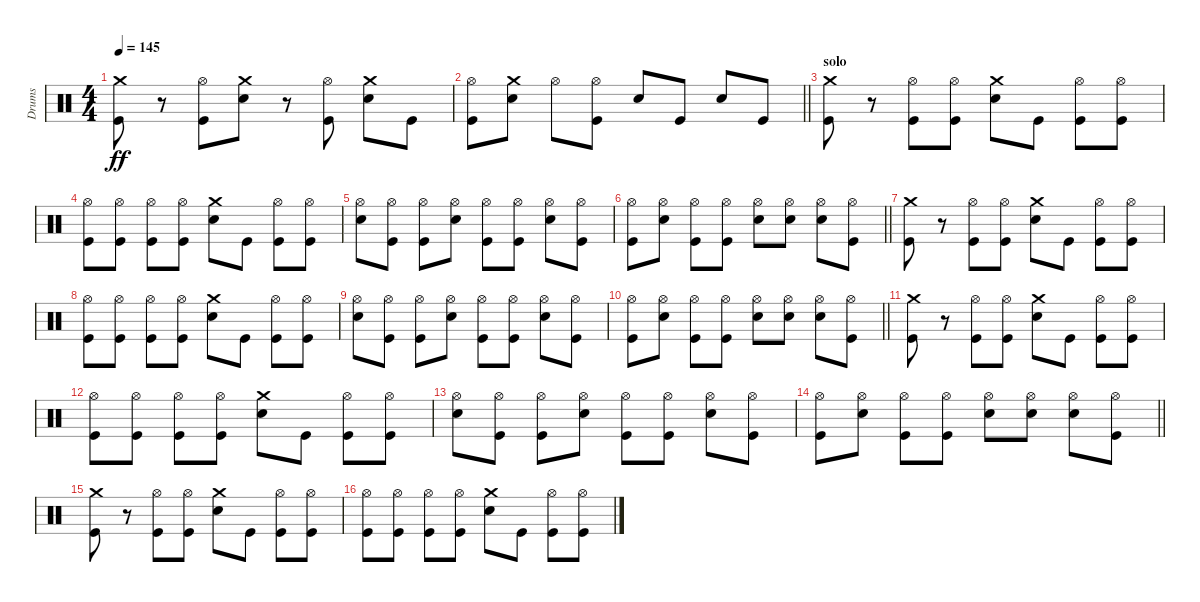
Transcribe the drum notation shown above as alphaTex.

\track ("Drums" "Drums") {instrument percussion}
\staff {score}
\articulation defaults
\ts (4 4)
\tempo 145
\clef neutral
\ks c
("Crash medium (hit)" "Kick (hit)").8{dy ff} r.8 ("Hi-Hat (open)" "Kick (hit)").8 ("Crash medium (hit)" "Snare (hit) 2").8 r.8 ("Hi-Hat (open)" "Kick (hit)").8 ("Crash medium (hit)" "Snare (hit) 2").8 "Kick (hit)".8 |
\barLineRight lightlight
("Kick (hit)" "Hi-Hat (open)").8 ("Crash medium (hit)" "Snare (hit) 2").8 "Hi-Hat (open)".8 ("Hi-Hat (open)" "Kick (hit)").8 "Snare (hit) 2".8 "Kick (hit)".8 "Snare (hit) 2".8 "Kick (hit)".8 |
\section ("" "solo")
("Kick (hit)" "Crash medium (hit)").8 r.8 ("Hi-Hat (open)" "Kick (hit)").8 ("Hi-Hat (open)" "Kick (hit)").8 ("Snare (hit) 2" "Crash medium (hit)").8 "Kick (hit)".8 ("Hi-Hat (open)" "Kick (hit)").8 ("Hi-Hat (open)" "Kick (hit)").8 |
("Hi-Hat (open)" "Kick (hit)").8 ("Hi-Hat (open)" "Kick (hit)").8 ("Kick (hit)" "Hi-Hat (open)").8 ("Hi-Hat (open)" "Kick (hit)").8 ("Snare (hit) 2" "Crash medium (hit)").8 "Kick (hit)".8 ("Hi-Hat (open)" "Kick (hit)").8 ("Hi-Hat (open)" "Kick (hit)").8 |
("Hi-Hat (open)" "Snare (hit) 2").8 ("Hi-Hat (open)" "Kick (hit)").8 ("Hi-Hat (open)" "Kick (hit)").8 ("Snare (hit) 2" "Hi-Hat (open)").8 ("Hi-Hat (open)" "Kick (hit)").8 ("Hi-Hat (open)" "Kick (hit)").8 ("Snare (hit) 2" "Hi-Hat (open)").8 ("Hi-Hat (open)" "Kick (hit)").8 |
\barLineRight lightlight
("Hi-Hat (open)" "Kick (hit)").8 ("Snare (hit) 2" "Hi-Hat (open)").8 ("Hi-Hat (open)" "Kick (hit)").8 ("Hi-Hat (open)" "Kick (hit)").8 ("Hi-Hat (open)" "Snare (hit) 2").8 ("Hi-Hat (open)" "Snare (hit) 2").8 ("Hi-Hat (open)" "Snare (hit) 2").8 ("Hi-Hat (open)" "Kick (hit)").8 |
("Kick (hit)" "Crash medium (hit)").8 r.8 ("Hi-Hat (open)" "Kick (hit)").8 ("Hi-Hat (open)" "Kick (hit)").8 ("Snare (hit) 2" "Crash medium (hit)").8 "Kick (hit)".8 ("Hi-Hat (open)" "Kick (hit)").8 ("Hi-Hat (open)" "Kick (hit)").8 |
("Hi-Hat (open)" "Kick (hit)").8 ("Hi-Hat (open)" "Kick (hit)").8 ("Kick (hit)" "Hi-Hat (open)").8 ("Hi-Hat (open)" "Kick (hit)").8 ("Snare (hit) 2" "Crash medium (hit)").8 "Kick (hit)".8 ("Hi-Hat (open)" "Kick (hit)").8 ("Hi-Hat (open)" "Kick (hit)").8 |
("Hi-Hat (open)" "Snare (hit) 2").8 ("Hi-Hat (open)" "Kick (hit)").8 ("Hi-Hat (open)" "Kick (hit)").8 ("Snare (hit) 2" "Hi-Hat (open)").8 ("Hi-Hat (open)" "Kick (hit)").8 ("Hi-Hat (open)" "Kick (hit)").8 ("Snare (hit) 2" "Hi-Hat (open)").8 ("Hi-Hat (open)" "Kick (hit)").8 |
\barLineRight lightlight
("Hi-Hat (open)" "Kick (hit)").8 ("Snare (hit) 2" "Hi-Hat (open)").8 ("Hi-Hat (open)" "Kick (hit)").8 ("Hi-Hat (open)" "Kick (hit)").8 ("Hi-Hat (open)" "Snare (hit) 2").8 ("Hi-Hat (open)" "Snare (hit) 2").8 ("Hi-Hat (open)" "Snare (hit) 2").8 ("Hi-Hat (open)" "Kick (hit)").8 |
("Kick (hit)" "Crash medium (hit)").8 r.8 ("Hi-Hat (open)" "Kick (hit)").8 ("Hi-Hat (open)" "Kick (hit)").8 ("Snare (hit) 2" "Crash medium (hit)").8 "Kick (hit)".8 ("Hi-Hat (open)" "Kick (hit)").8 ("Hi-Hat (open)" "Kick (hit)").8 |
("Hi-Hat (open)" "Kick (hit)").8 ("Hi-Hat (open)" "Kick (hit)").8 ("Kick (hit)" "Hi-Hat (open)").8 ("Hi-Hat (open)" "Kick (hit)").8 ("Snare (hit) 2" "Crash medium (hit)").8 "Kick (hit)".8 ("Hi-Hat (open)" "Kick (hit)").8 ("Hi-Hat (open)" "Kick (hit)").8 |
("Hi-Hat (open)" "Snare (hit) 2").8 ("Hi-Hat (open)" "Kick (hit)").8 ("Hi-Hat (open)" "Kick (hit)").8 ("Snare (hit) 2" "Hi-Hat (open)").8 ("Hi-Hat (open)" "Kick (hit)").8 ("Hi-Hat (open)" "Kick (hit)").8 ("Snare (hit) 2" "Hi-Hat (open)").8 ("Hi-Hat (open)" "Kick (hit)").8 |
\barLineRight lightlight
("Hi-Hat (open)" "Kick (hit)").8 ("Snare (hit) 2" "Hi-Hat (open)").8 ("Hi-Hat (open)" "Kick (hit)").8 ("Hi-Hat (open)" "Kick (hit)").8 ("Hi-Hat (open)" "Snare (hit) 2").8 ("Hi-Hat (open)" "Snare (hit) 2").8 ("Hi-Hat (open)" "Snare (hit) 2").8 ("Hi-Hat (open)" "Kick (hit)").8 |
("Kick (hit)" "Crash medium (hit)").8 r.8 ("Hi-Hat (open)" "Kick (hit)").8 ("Hi-Hat (open)" "Kick (hit)").8 ("Snare (hit) 2" "Crash medium (hit)").8 "Kick (hit)".8 ("Hi-Hat (open)" "Kick (hit)").8 ("Hi-Hat (open)" "Kick (hit)").8 |
("Hi-Hat (open)" "Kick (hit)").8 ("Hi-Hat (open)" "Kick (hit)").8 ("Kick (hit)" "Hi-Hat (open)").8 ("Hi-Hat (open)" "Kick (hit)").8 ("Snare (hit) 2" "Crash medium (hit)").8 "Kick (hit)".8 ("Hi-Hat (open)" "Kick (hit)").8 ("Hi-Hat (open)" "Kick (hit)").8
